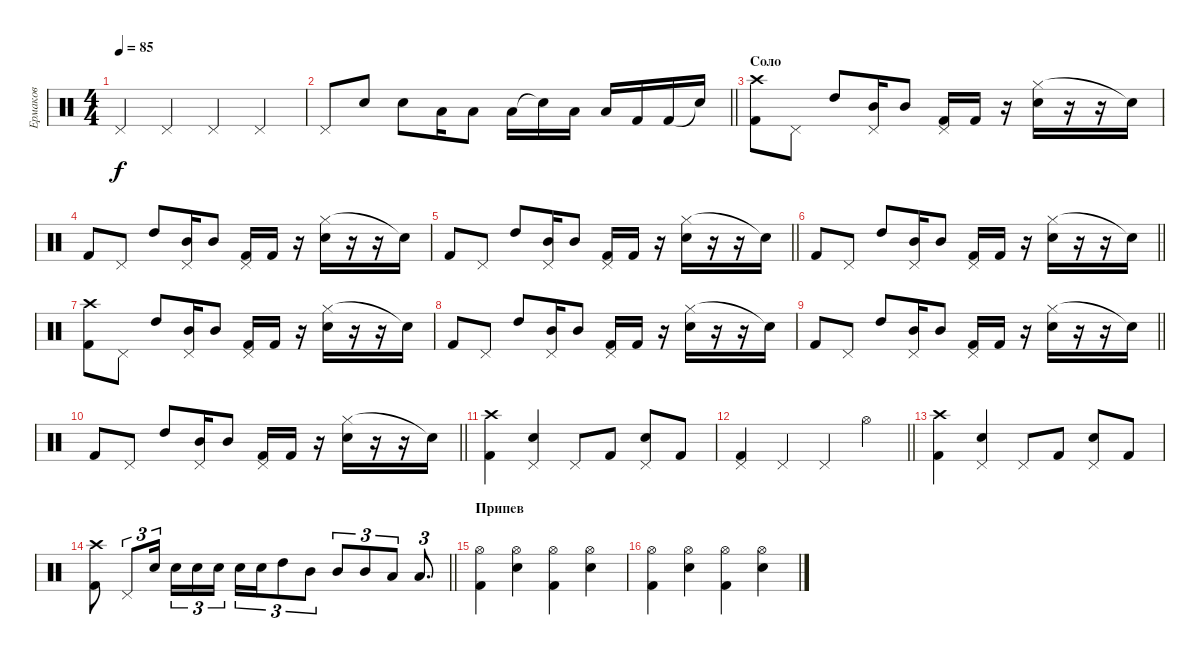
\track ("Ермаков" "Ермаков") {instrument percussion}
\staff {score}
\articulation defaults
\ts (4 4)
\tempo 85
\clef neutral
\ks c "Pedal Hi-Hat (hit)".4{dy f} "Pedal Hi-Hat (hit)".4 "Pedal Hi-Hat (hit)".4 "Pedal Hi-Hat (hit)".4
|
\barLineRight lightlight "Pedal Hi-Hat (hit)".8 "Electric Snare (hit)".8 "Electric Snare (hit)".8 "Low Tom (hit)".16 "Low Tom (hit)".8 "Low Tom (hit)".16 "Snare (hit)"{t}.16 "Low Tom (hit)".16 "Low Tom (hit)".16 "Kick (hit) 2".16 "Kick (hit) 2".16 "Snare (hit)"{t}.16
|
\section ("" "Cоло")
("Crash high (hit)" "Kick (hit) 2").8 "Pedal Hi-Hat (hit)".8 "High Tom (hit)".8 ("Pedal Hi-Hat (hit)" "Mid Tom (hit)").16 "Mid Tom (hit)".8 ("Pedal Hi-Hat (hit)" "Kick (hit) 2").16 "Kick (hit) 2".16 r.16 ("Hi-Hat (closed)" "Snare (hit) 2").16 r.16 r.16 "Snare (hit)"{t}.16 |
"Kick (hit) 2".8 "Pedal Hi-Hat (hit)".8 "High Tom (hit)".8 ("Pedal Hi-Hat (hit)" "Mid Tom (hit)").16 "Mid Tom (hit)".8 ("Pedal Hi-Hat (hit)" "Kick (hit) 2").16 "Kick (hit) 2".16 r.16 ("Hi-Hat (closed)" "Snare (hit) 2").16 r.16 r.16 "Snare (hit)"{t}.16 |
\barLineRight lightlight "Kick (hit) 2".8 "Pedal Hi-Hat (hit)".8 "High Tom (hit)".8
("Pedal Hi-Hat (hit)" "Mid Tom (hit)").16 "Mid Tom (hit)".8 ("Pedal Hi-Hat (hit)" "Kick (hit) 2").16 "Kick (hit) 2".16 r.16 ("Hi-Hat (closed)" "Snare (hit) 2").16 r.16 r.16 "Snare (hit)"{t}.16 |
\barLineRight lightlight "Kick (hit) 2".8 "Pedal Hi-Hat (hit)".8 "High Tom (hit)".8
("Pedal Hi-Hat (hit)" "Mid Tom (hit)").16 "Mid Tom (hit)".8 ("Pedal Hi-Hat (hit)" "Kick (hit) 2").16 "Kick (hit) 2".16 r.16 ("Hi-Hat (closed)" "Snare (hit) 2").16 r.16 r.16 "Snare (hit)"{t}.16 |
("Crash high (hit)" "Kick (hit) 2").8 "Pedal Hi-Hat (hit)".8 "High Tom (hit)".8 ("Pedal Hi-Hat (hit)" "Mid Tom (hit)").16 "Mid Tom (hit)".8 ("Pedal Hi-Hat (hit)" "Kick (hit) 2").16 "Kick (hit) 2".16 r.16 ("Hi-Hat (closed)" "Snare (hit) 2").16 r.16 r.16 "Snare (hit)"{t}.16 |
"Kick (hit) 2".8 "Pedal Hi-Hat (hit)".8 "High Tom (hit)".8 ("Pedal Hi-Hat (hit)" "Mid Tom (hit)").16 "Mid Tom (hit)".8 ("Pedal Hi-Hat (hit)" "Kick (hit) 2").16 "Kick (hit) 2".16 r.16 ("Hi-Hat (closed)" "Snare (hit) 2").16 r.16 r.16 "Snare (hit)"{t}.16 |
\barLineRight lightlight "Kick (hit) 2".8 "Pedal Hi-Hat (hit)".8 "High Tom (hit)".8
("Pedal Hi-Hat (hit)" "Mid Tom (hit)").16 "Mid Tom (hit)".8 ("Pedal Hi-Hat (hit)" "Kick (hit) 2").16 "Kick (hit) 2".16 r.16 ("Hi-Hat (closed)" "Snare (hit) 2").16 r.16 r.16 "Snare (hit)"{t}.16 |
\barLineRight lightlight "Kick (hit) 2".8 "Pedal Hi-Hat (hit)".8 "High Tom (hit)".8
("Pedal Hi-Hat (hit)" "Mid Tom (hit)").16 "Mid Tom (hit)".8 ("Pedal Hi-Hat (hit)" "Kick (hit) 2").16 "Kick (hit) 2".16 r.16 ("Hi-Hat (closed)" "Snare (hit) 2").16 r.16 r.16 "Snare (hit)"{t}.16 |
("Crash high (hit)" "Kick (hit) 2").4 ("Pedal Hi-Hat (hit)" "Snare (hit) 2").4 "Pedal Hi-Hat (hit)".8 "Kick (hit) 2".8 ("Pedal Hi-Hat (hit)" "Snare (hit) 2").8 "Kick (hit) 2".8 |
\barLineRight lightlight
("Pedal Hi-Hat (hit)" "Kick (hit) 2").4 "Pedal Hi-Hat (hit)".4 "Pedal Hi-Hat (hit)".4 "Hi-Hat (open)".4 |
("Crash high (hit)" "Kick (hit) 2").4 ("Pedal Hi-Hat (hit)" "Snare (hit) 2").4 "Pedal Hi-Hat (hit)".8 "Kick (hit) 2".8 ("Pedal Hi-Hat (hit)" "Snare (hit) 2").8 "Kick (hit) 2".8 |
\barLineRight lightlight
("Crash high (hit)" "Kick (hit) 2").8 "Pedal Hi-Hat (hit)".8{tu (3 2)} "Snare (hit) 2".16{tu (3 2)} "Snare (hit) 2".16{tu (3 2)} "Snare (hit) 2".16{tu (3 2)} "Snare (hit) 2".16{tu (3 2) beam splitsecondary} "Snare (hit) 2".16{tu (3 2)} "Snare (hit) 2".16{tu (3 2)} "High Tom (hit)".8{tu (3 2)} "Mid Tom (hit)".8{tu (3 2)} "Mid Tom (hit)".8{tu (3 2)} "Mid Tom (hit)".8{tu (3 2)} "Low Tom (hit)".8{tu (3 2)} "Low Tom (hit)".8{d tu (3 2)} |
\section ("" "Припев")
("Hi-Hat (open)" "Kick (hit) 2").4 ("Hi-Hat (open)" "Snare (hit) 2").4 ("Hi-Hat (open)" "Kick (hit) 2").4 ("Hi-Hat (open)" "Snare (hit) 2").4 |
("Hi-Hat (open)" "Kick (hit) 2").4 ("Hi-Hat (open)" "Snare (hit) 2").4 ("Hi-Hat (open)" "Kick (hit) 2").4 ("Hi-Hat (open)" "Snare (hit) 2").4
